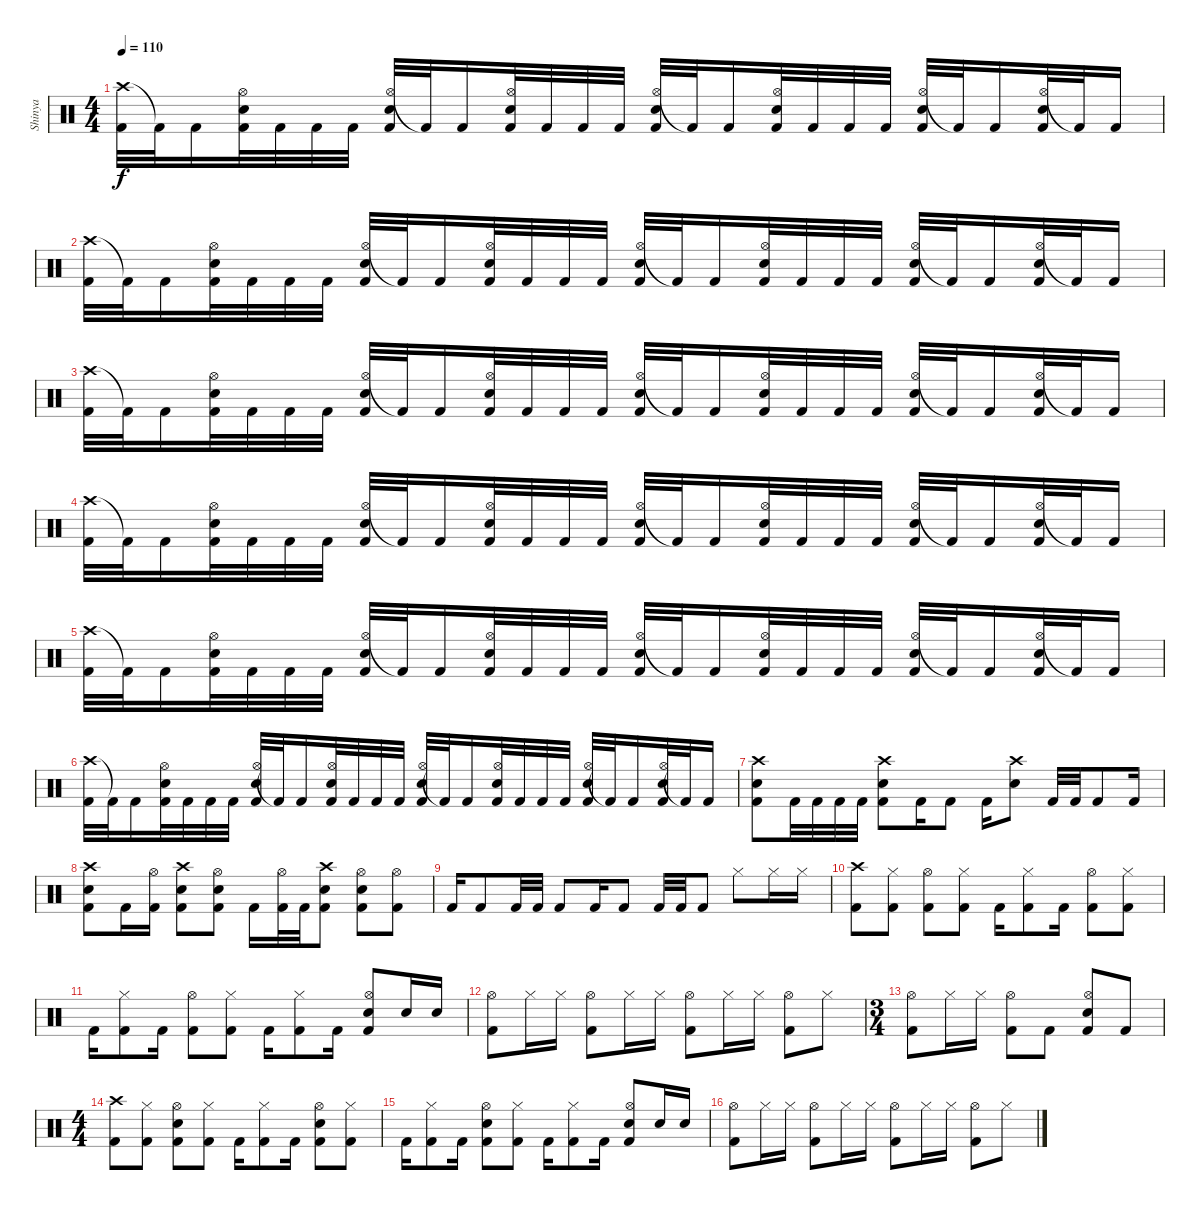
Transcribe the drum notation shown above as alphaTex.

\track ("Shinya" "Shinya") {instrument percussion}
\staff {score}
\articulation defaults
\ts (4 4)
\tempo 110
\clef neutral
\ks c
("Crash high (hit)" "Kick (hit) 2").32{dy f} "Kick (hit) 2"{t}.32 "Kick (hit) 2".16 ("Hi-Hat (open)" "Electric Snare (hit)" "Kick (hit) 2").32 "Kick (hit) 2".32 "Kick (hit) 2".32 "Kick (hit) 2".32 ("Hi-Hat (open)" "Electric Snare (hit)" "Kick (hit) 2").32 "Kick (hit) 2"{t}.32 "Kick (hit) 2".16 ("Hi-Hat (open)" "Electric Snare (hit)" "Kick (hit) 2").32 "Kick (hit) 2".32 "Kick (hit) 2".32 "Kick (hit) 2".32 ("Hi-Hat (open)" "Electric Snare (hit)" "Kick (hit) 2").32 "Kick (hit) 2"{t}.32 "Kick (hit) 2".16 ("Hi-Hat (open)" "Electric Snare (hit)" "Kick (hit) 2").32 "Kick (hit) 2".32 "Kick (hit) 2".32 "Kick (hit) 2".32 ("Hi-Hat (open)" "Electric Snare (hit)" "Kick (hit) 2").32 "Kick (hit) 2"{t}.32 "Kick (hit) 2".16 ("Hi-Hat (open)" "Electric Snare (hit)" "Kick (hit) 2").32 "Kick (hit) 2"{t}.32 "Kick (hit) 2".16 |
("Crash high (hit)" "Kick (hit) 2").32 "Kick (hit) 2"{t}.32 "Kick (hit) 2".16 ("Hi-Hat (open)" "Electric Snare (hit)" "Kick (hit) 2").32 "Kick (hit) 2".32 "Kick (hit) 2".32 "Kick (hit) 2".32 ("Hi-Hat (open)" "Electric Snare (hit)" "Kick (hit) 2").32 "Kick (hit) 2"{t}.32 "Kick (hit) 2".16 ("Hi-Hat (open)" "Electric Snare (hit)" "Kick (hit) 2").32 "Kick (hit) 2".32 "Kick (hit) 2".32 "Kick (hit) 2".32 ("Hi-Hat (open)" "Electric Snare (hit)" "Kick (hit) 2").32 "Kick (hit) 2"{t}.32 "Kick (hit) 2".16 ("Hi-Hat (open)" "Electric Snare (hit)" "Kick (hit) 2").32 "Kick (hit) 2".32 "Kick (hit) 2".32 "Kick (hit) 2".32 ("Hi-Hat (open)" "Electric Snare (hit)" "Kick (hit) 2").32 "Kick (hit) 2"{t}.32 "Kick (hit) 2".16 ("Hi-Hat (open)" "Electric Snare (hit)" "Kick (hit) 2").32 "Kick (hit) 2"{t}.32 "Kick (hit) 2".16 |
("Crash high (hit)" "Kick (hit) 2").32 "Kick (hit) 2"{t}.32 "Kick (hit) 2".16 ("Hi-Hat (open)" "Electric Snare (hit)" "Kick (hit) 2").32 "Kick (hit) 2".32 "Kick (hit) 2".32 "Kick (hit) 2".32 ("Hi-Hat (open)" "Electric Snare (hit)" "Kick (hit) 2").32 "Kick (hit) 2"{t}.32 "Kick (hit) 2".16 ("Hi-Hat (open)" "Electric Snare (hit)" "Kick (hit) 2").32 "Kick (hit) 2".32 "Kick (hit) 2".32 "Kick (hit) 2".32 ("Hi-Hat (open)" "Electric Snare (hit)" "Kick (hit) 2").32 "Kick (hit) 2"{t}.32 "Kick (hit) 2".16 ("Hi-Hat (open)" "Electric Snare (hit)" "Kick (hit) 2").32 "Kick (hit) 2".32 "Kick (hit) 2".32 "Kick (hit) 2".32 ("Hi-Hat (open)" "Electric Snare (hit)" "Kick (hit) 2").32 "Kick (hit) 2"{t}.32 "Kick (hit) 2".16 ("Hi-Hat (open)" "Electric Snare (hit)" "Kick (hit) 2").32 "Kick (hit) 2"{t}.32 "Kick (hit) 2".16 |
("Crash high (hit)" "Kick (hit) 2").32 "Kick (hit) 2"{t}.32 "Kick (hit) 2".16 ("Hi-Hat (open)" "Electric Snare (hit)" "Kick (hit) 2").32 "Kick (hit) 2".32 "Kick (hit) 2".32 "Kick (hit) 2".32 ("Hi-Hat (open)" "Electric Snare (hit)" "Kick (hit) 2").32 "Kick (hit) 2"{t}.32 "Kick (hit) 2".16 ("Hi-Hat (open)" "Electric Snare (hit)" "Kick (hit) 2").32 "Kick (hit) 2".32 "Kick (hit) 2".32 "Kick (hit) 2".32 ("Hi-Hat (open)" "Electric Snare (hit)" "Kick (hit) 2").32 "Kick (hit) 2"{t}.32 "Kick (hit) 2".16 ("Hi-Hat (open)" "Electric Snare (hit)" "Kick (hit) 2").32 "Kick (hit) 2".32 "Kick (hit) 2".32 "Kick (hit) 2".32 ("Hi-Hat (open)" "Electric Snare (hit)" "Kick (hit) 2").32 "Kick (hit) 2"{t}.32 "Kick (hit) 2".16 ("Hi-Hat (open)" "Electric Snare (hit)" "Kick (hit) 2").32 "Kick (hit) 2"{t}.32 "Kick (hit) 2".16 |
("Crash high (hit)" "Kick (hit) 2").32 "Kick (hit) 2"{t}.32 "Kick (hit) 2".16 ("Hi-Hat (open)" "Electric Snare (hit)" "Kick (hit) 2").32 "Kick (hit) 2".32 "Kick (hit) 2".32 "Kick (hit) 2".32 ("Hi-Hat (open)" "Electric Snare (hit)" "Kick (hit) 2").32 "Kick (hit) 2"{t}.32 "Kick (hit) 2".16 ("Hi-Hat (open)" "Electric Snare (hit)" "Kick (hit) 2").32 "Kick (hit) 2".32 "Kick (hit) 2".32 "Kick (hit) 2".32 ("Hi-Hat (open)" "Electric Snare (hit)" "Kick (hit) 2").32 "Kick (hit) 2"{t}.32 "Kick (hit) 2".16 ("Hi-Hat (open)" "Electric Snare (hit)" "Kick (hit) 2").32 "Kick (hit) 2".32 "Kick (hit) 2".32 "Kick (hit) 2".32 ("Hi-Hat (open)" "Electric Snare (hit)" "Kick (hit) 2").32 "Kick (hit) 2"{t}.32 "Kick (hit) 2".16 ("Hi-Hat (open)" "Electric Snare (hit)" "Kick (hit) 2").32 "Kick (hit) 2"{t}.32 "Kick (hit) 2".16 |
("Crash high (hit)" "Kick (hit) 2").32 "Kick (hit) 2"{t}.32 "Kick (hit) 2".16 ("Hi-Hat (open)" "Electric Snare (hit)" "Kick (hit) 2").32 "Kick (hit) 2".32 "Kick (hit) 2".32 "Kick (hit) 2".32 ("Hi-Hat (open)" "Electric Snare (hit)" "Kick (hit) 2").32 "Kick (hit) 2"{t}.32 "Kick (hit) 2".16 ("Hi-Hat (open)" "Electric Snare (hit)" "Kick (hit) 2").32 "Kick (hit) 2".32 "Kick (hit) 2".32 "Kick (hit) 2".32 ("Hi-Hat (open)" "Electric Snare (hit)" "Kick (hit) 2").32 "Kick (hit) 2"{t}.32 "Kick (hit) 2".16 ("Hi-Hat (open)" "Electric Snare (hit)" "Kick (hit) 2").32 "Kick (hit) 2".32 "Kick (hit) 2".32 "Kick (hit) 2".32 ("Hi-Hat (open)" "Electric Snare (hit)" "Kick (hit) 2").32 "Kick (hit) 2"{t}.32 "Kick (hit) 2".16 ("Hi-Hat (open)" "Electric Snare (hit)" "Kick (hit) 2").32 "Kick (hit) 2"{t}.32 "Kick (hit) 2".16 |
("Crash high (hit)" "Electric Snare (hit)" "Kick (hit) 2").8 "Kick (hit) 2".32 "Kick (hit) 2".32 "Kick (hit) 2".32 "Kick (hit) 2".32 ("Crash high (hit)" "Electric Snare (hit)" "Kick (hit) 2").8 "Kick (hit) 2".16 "Kick (hit) 2".8 "Kick (hit) 2".16 ("Crash high (hit)" "Electric Snare (hit)").8 "Kick (hit) 2".32 "Kick (hit) 2".32 "Kick (hit) 2".8 "Kick (hit) 2".16 |
("Crash high (hit)" "Electric Snare (hit)" "Kick (hit) 2").8 "Kick (hit) 2".16 ("Hi-Hat (open)" "Kick (hit) 2").16 ("Crash high (hit)" "Electric Snare (hit)" "Kick (hit) 2").8 ("Hi-Hat (open)" "Electric Snare (hit)" "Kick (hit) 2").8 "Kick (hit) 2".16 ("Hi-Hat (open)" "Kick (hit) 2").32 "Kick (hit) 2".32 ("Crash high (hit)" "Electric Snare (hit)" "Kick (hit) 2").8 ("Hi-Hat (open)" "Electric Snare (hit)" "Kick (hit) 2").8 ("Hi-Hat (open)" "Kick (hit) 2").8 |
"Kick (hit) 2".16 "Kick (hit) 2".8 "Kick (hit) 2".32 "Kick (hit) 2".32 "Kick (hit) 2".8 "Kick (hit) 2".16 "Kick (hit) 2".8 "Kick (hit) 2".32 "Kick (hit) 2".32 "Kick (hit) 2".8 "Hi-Hat (closed)".8 "Hi-Hat (closed)".16 "Hi-Hat (closed)".16 |
("Crash high (hit)" "Kick (hit) 2").8 ("Hi-Hat (closed)" "Kick (hit) 2").8 ("Hi-Hat (open)" "Kick (hit) 2").8 ("Hi-Hat (closed)" "Kick (hit) 2").8 "Kick (hit) 2".16 ("Hi-Hat (closed)" "Kick (hit) 2").8 "Kick (hit) 2".16 ("Hi-Hat (open)" "Kick (hit) 2").8 ("Hi-Hat (closed)" "Kick (hit) 2").8 |
"Kick (hit) 2".16 ("Hi-Hat (closed)" "Kick (hit) 2").8 "Kick (hit) 2".16 ("Hi-Hat (open)" "Kick (hit) 2").8 ("Hi-Hat (closed)" "Kick (hit) 2").8 "Kick (hit) 2".16 ("Hi-Hat (closed)" "Kick (hit) 2").8 "Kick (hit) 2".16 ("Hi-Hat (open)" "Electric Snare (hit)" "Kick (hit) 2").8 "Electric Snare (hit)".16 "Electric Snare (hit)".16 |
("Hi-Hat (open)" "Kick (hit) 2").8 "Hi-Hat (closed)".16 "Hi-Hat (closed)".16 ("Hi-Hat (open)" "Kick (hit) 2").8 "Hi-Hat (closed)".16 "Hi-Hat (closed)".16 ("Hi-Hat (open)" "Kick (hit) 2").8 "Hi-Hat (closed)".16 "Hi-Hat (closed)".16 ("Hi-Hat (open)" "Kick (hit) 2").8 "Hi-Hat (closed)".8 |
\ts (3 4)
("Hi-Hat (open)" "Kick (hit) 2").8 "Hi-Hat (closed)".16 "Hi-Hat (closed)".16 ("Hi-Hat (open)" "Kick (hit) 2").8 "Kick (hit) 2".8 ("Hi-Hat (open)" "Electric Snare (hit)" "Kick (hit) 2").8 "Kick (hit) 2".8 |
\ts (4 4)
("Crash high (hit)" "Kick (hit) 2").8 ("Hi-Hat (closed)" "Kick (hit) 2").8 ("Hi-Hat (open)" "Electric Snare (hit)" "Kick (hit) 2").8 ("Hi-Hat (closed)" "Kick (hit) 2").8 "Kick (hit) 2".16 ("Hi-Hat (closed)" "Kick (hit) 2").8 "Kick (hit) 2".16 ("Hi-Hat (open)" "Electric Snare (hit)" "Kick (hit) 2").8 ("Hi-Hat (closed)" "Kick (hit) 2").8 |
"Kick (hit) 2".16 ("Hi-Hat (closed)" "Kick (hit) 2").8 "Kick (hit) 2".16 ("Hi-Hat (open)" "Electric Snare (hit)" "Kick (hit) 2").8 ("Hi-Hat (closed)" "Kick (hit) 2").8 "Kick (hit) 2".16 ("Hi-Hat (closed)" "Kick (hit) 2").8 "Kick (hit) 2".16 ("Hi-Hat (open)" "Electric Snare (hit)" "Kick (hit) 2").8 "Electric Snare (hit)".16 "Electric Snare (hit)".16 |
("Hi-Hat (open)" "Kick (hit) 2").8 "Hi-Hat (closed)".16 "Hi-Hat (closed)".16 ("Hi-Hat (open)" "Kick (hit) 2").8 "Hi-Hat (closed)".16 "Hi-Hat (closed)".16 ("Hi-Hat (open)" "Kick (hit) 2").8 "Hi-Hat (closed)".16 "Hi-Hat (closed)".16 ("Hi-Hat (open)" "Kick (hit) 2").8 "Hi-Hat (closed)".8
